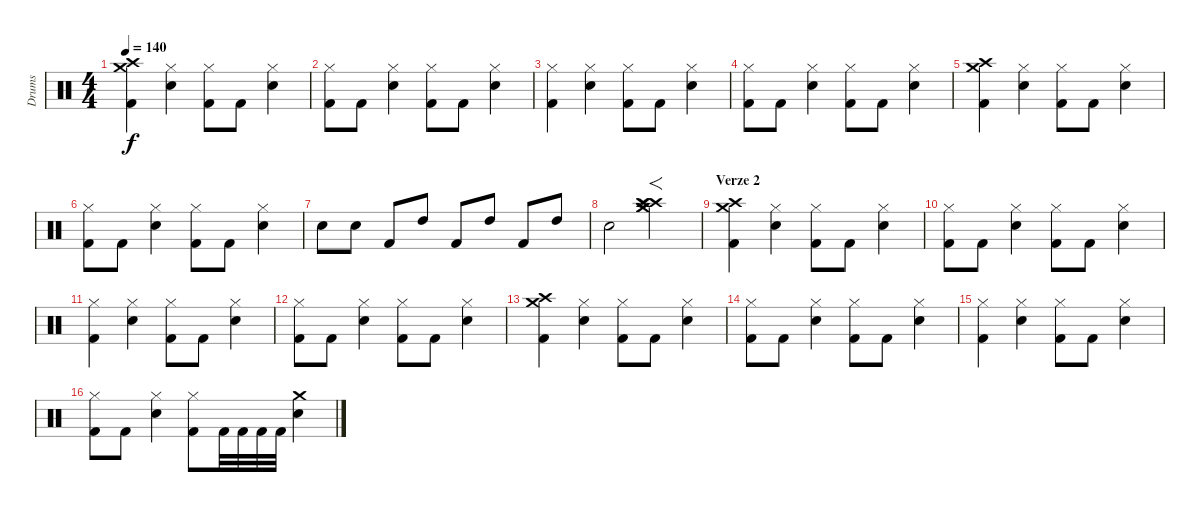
\track ("Drums" "Drums") {instrument percussion}
\staff {score}
\articulation defaults
\ts (4 4)
\tempo 140
\clef neutral
\ks c
("Crash medium (hit)" "Crash high (hit)" "Kick (hit) 2").4{dy f} ("Hi-Hat (closed)" "Snare (hit) 2").4 ("Hi-Hat (closed)" "Kick (hit) 2").8 "Kick (hit) 2".8 ("Hi-Hat (closed)" "Snare (hit) 2").4 |
("Hi-Hat (closed)" "Kick (hit) 2").8 "Kick (hit) 2".8 ("Hi-Hat (closed)" "Snare (hit) 2").4 ("Hi-Hat (closed)" "Kick (hit) 2").8 "Kick (hit) 2".8 ("Hi-Hat (closed)" "Snare (hit) 2").4 |
("Hi-Hat (closed)" "Kick (hit) 2").4 ("Hi-Hat (closed)" "Snare (hit) 2").4 ("Hi-Hat (closed)" "Kick (hit) 2").8 "Kick (hit) 2".8 ("Hi-Hat (closed)" "Snare (hit) 2").4 |
("Hi-Hat (closed)" "Kick (hit) 2").8 "Kick (hit) 2".8 ("Hi-Hat (closed)" "Snare (hit) 2").4 ("Hi-Hat (closed)" "Kick (hit) 2").8 "Kick (hit) 2".8 ("Hi-Hat (closed)" "Snare (hit) 2").4 |
("Crash medium (hit)" "Crash high (hit)" "Kick (hit) 2").4 ("Hi-Hat (closed)" "Snare (hit) 2").4 ("Hi-Hat (closed)" "Kick (hit) 2").8 "Kick (hit) 2".8 ("Hi-Hat (closed)" "Snare (hit) 2").4 |
("Hi-Hat (closed)" "Kick (hit) 2").8 "Kick (hit) 2".8 ("Hi-Hat (closed)" "Snare (hit) 2").4 ("Hi-Hat (closed)" "Kick (hit) 2").8 "Kick (hit) 2".8 ("Hi-Hat (closed)" "Snare (hit) 2").4 |
"Snare (hit) 2".8 "Snare (hit) 2".8 "Kick (hit) 2".8 "High Tom (hit)".8 "Kick (hit) 2".8 "High Tom (hit)".8 "Kick (hit) 2".8 "High Tom (hit)".8 |
"Snare (hit) 2".2 ("Crash high (hit)" "Splash (hit)" "Crash medium (hit)" "Crash medium (hit)" "Crash high (hit)" "Splash (hit)").2{f} |
\section ("" "Verze 2")
("Crash medium (hit)" "Crash high (hit)" "Kick (hit) 2").4 ("Hi-Hat (closed)" "Snare (hit) 2").4 ("Hi-Hat (closed)" "Kick (hit) 2").8 "Kick (hit) 2".8 ("Hi-Hat (closed)" "Snare (hit) 2").4 |
("Hi-Hat (closed)" "Kick (hit) 2").8 "Kick (hit) 2".8 ("Hi-Hat (closed)" "Snare (hit) 2").4 ("Hi-Hat (closed)" "Kick (hit) 2").8 "Kick (hit) 2".8 ("Hi-Hat (closed)" "Snare (hit) 2").4 |
("Hi-Hat (closed)" "Kick (hit) 2").4 ("Hi-Hat (closed)" "Snare (hit) 2").4 ("Hi-Hat (closed)" "Kick (hit) 2").8 "Kick (hit) 2".8 ("Hi-Hat (closed)" "Snare (hit) 2").4 |
("Hi-Hat (closed)" "Kick (hit) 2").8 "Kick (hit) 2".8 ("Hi-Hat (closed)" "Snare (hit) 2").4 ("Hi-Hat (closed)" "Kick (hit) 2").8 "Kick (hit) 2".8 ("Hi-Hat (closed)" "Snare (hit) 2").4 |
("Crash medium (hit)" "Crash high (hit)" "Kick (hit) 2").4 ("Hi-Hat (closed)" "Snare (hit) 2").4 ("Hi-Hat (closed)" "Kick (hit) 2").8 "Kick (hit) 2".8 ("Hi-Hat (closed)" "Snare (hit) 2").4 |
("Hi-Hat (closed)" "Kick (hit) 2").8 "Kick (hit) 2".8 ("Hi-Hat (closed)" "Snare (hit) 2").4 ("Hi-Hat (closed)" "Kick (hit) 2").8 "Kick (hit) 2".8 ("Hi-Hat (closed)" "Snare (hit) 2").4 |
("Hi-Hat (closed)" "Kick (hit) 2").4 ("Hi-Hat (closed)" "Snare (hit) 2").4 ("Hi-Hat (closed)" "Kick (hit) 2").8 "Kick (hit) 2".8 ("Hi-Hat (closed)" "Snare (hit) 2").4 |
("Hi-Hat (closed)" "Kick (hit) 2").8 "Kick (hit) 2".8 ("Hi-Hat (closed)" "Snare (hit) 2").4 ("Hi-Hat (closed)" "Kick (hit) 2").8 "Kick (hit) 2".32 "Kick (hit) 2".32 "Kick (hit) 2".32 "Kick (hit) 2".32 ("Crash medium (hit)" "Snare (hit) 2").4
